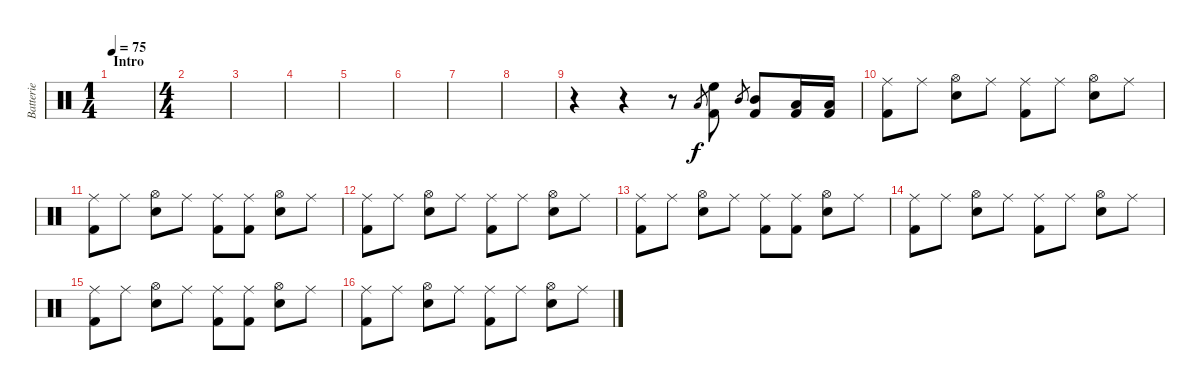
\track ("Batterie" "Batterie") {instrument percussion}
\staff {score}
\articulation defaults
\ts (1 4)
\section ("" "Intro")
\tempo 75
\clef neutral
\ks c
|
\ts (4 4)
|
|
|
|
|
|
|
r.4 r.4 r.8 "Low Floor Tom (hit)".8{gr} ("High Floor Tom (hit)" "Kick (hit) 2").8 "Mid Tom (hit)".8{gr} ("Mid Tom (hit)" "Kick (hit) 2").8 ("Low Tom (hit)" "Kick (hit) 2").16 ("Low Tom (hit)" "Kick (hit) 2").16 |
("Ride (middle)" "Kick (hit) 2").8 "Ride (middle)".8 ("Hi-Hat (open)" "Snare (hit) 2").8 "Ride (middle)".8 ("Ride (middle)" "Kick (hit) 2").8 "Ride (middle)".8 ("Hi-Hat (open)" "Snare (hit) 2").8 "Ride (middle)".8 |
("Ride (middle)" "Kick (hit) 2").8 "Ride (middle)".8 ("Hi-Hat (open)" "Snare (hit) 2").8 "Ride (middle)".8 ("Ride (middle)" "Kick (hit) 2").8 ("Ride (middle)" "Kick (hit) 2").8 ("Hi-Hat (open)" "Snare (hit) 2").8 "Ride (middle)".8 |
("Ride (middle)" "Kick (hit) 2").8 "Ride (middle)".8 ("Hi-Hat (open)" "Snare (hit) 2").8 "Ride (middle)".8 ("Ride (middle)" "Kick (hit) 2").8 "Ride (middle)".8 ("Hi-Hat (open)" "Snare (hit) 2").8 "Ride (middle)".8 |
("Ride (middle)" "Kick (hit) 2").8 "Ride (middle)".8 ("Hi-Hat (open)" "Snare (hit) 2").8 "Ride (middle)".8 ("Ride (middle)" "Kick (hit) 2").8 ("Ride (middle)" "Kick (hit) 2").8 ("Hi-Hat (open)" "Snare (hit) 2").8 "Ride (middle)".8 |
("Ride (middle)" "Kick (hit) 2").8 "Ride (middle)".8 ("Hi-Hat (open)" "Snare (hit) 2").8 "Ride (middle)".8 ("Ride (middle)" "Kick (hit) 2").8 "Ride (middle)".8 ("Hi-Hat (open)" "Snare (hit) 2").8 "Ride (middle)".8 |
("Ride (middle)" "Kick (hit) 2").8 "Ride (middle)".8 ("Hi-Hat (open)" "Snare (hit) 2").8 "Ride (middle)".8 ("Ride (middle)" "Kick (hit) 2").8 ("Ride (middle)" "Kick (hit) 2").8 ("Hi-Hat (open)" "Snare (hit) 2").8 "Ride (middle)".8 |
("Ride (middle)" "Kick (hit) 2").8 "Ride (middle)".8 ("Hi-Hat (open)" "Snare (hit) 2").8 "Ride (middle)".8 ("Ride (middle)" "Kick (hit) 2").8 "Ride (middle)".8 ("Hi-Hat (open)" "Snare (hit) 2").8 "Ride (middle)".8
